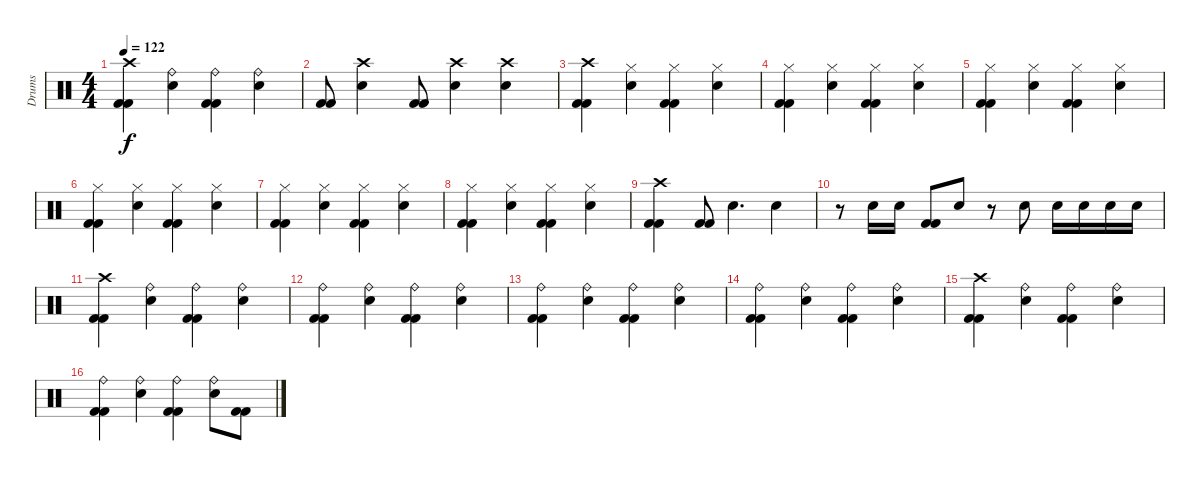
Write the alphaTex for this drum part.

\track ("Drums" "Drums") {instrument percussion}
\staff {score}
\articulation defaults
\ts (4 4)
\tempo 122
\clef neutral
\ks c
("Crash high (hit)" "Kick (hit) 2" "Kick (hit) 2").4{dy f} ("Ride (bell)" "Snare (hit) 2").4 ("Ride (bell)" "Kick (hit) 2" "Kick (hit) 2").4 ("Ride (bell)" "Snare (hit) 2").4 |
("Kick (hit) 2" "Kick (hit) 2").8 ("Crash high (hit)" "Snare (hit) 2").4 ("Kick (hit) 2" "Kick (hit) 2").8 ("Crash high (hit)" "Snare (hit) 2").4 ("Crash high (hit)" "Snare (hit) 2").4 |
("Crash high (hit)" "Kick (hit) 2" "Kick (hit) 2").4 ("Hi-Hat (closed)" "Snare (hit) 2").4 ("Hi-Hat (closed)" "Kick (hit) 2" "Kick (hit) 2").4 ("Hi-Hat (closed)" "Snare (hit) 2").4 |
("Hi-Hat (closed)" "Kick (hit) 2" "Kick (hit) 2").4 ("Hi-Hat (closed)" "Snare (hit) 2").4 ("Hi-Hat (closed)" "Kick (hit) 2" "Kick (hit) 2").4 ("Hi-Hat (closed)" "Snare (hit) 2").4 |
("Hi-Hat (closed)" "Kick (hit) 2" "Kick (hit) 2").4 ("Hi-Hat (closed)" "Snare (hit) 2").4 ("Hi-Hat (closed)" "Kick (hit) 2" "Kick (hit) 2").4 ("Hi-Hat (closed)" "Snare (hit) 2").4 |
("Hi-Hat (closed)" "Kick (hit) 2" "Kick (hit) 2").4 ("Hi-Hat (closed)" "Snare (hit) 2").4 ("Hi-Hat (closed)" "Kick (hit) 2" "Kick (hit) 2").4 ("Hi-Hat (closed)" "Snare (hit) 2").4 |
("Hi-Hat (closed)" "Kick (hit) 2" "Kick (hit) 2").4 ("Hi-Hat (closed)" "Snare (hit) 2").4 ("Hi-Hat (closed)" "Kick (hit) 2" "Kick (hit) 2").4 ("Hi-Hat (closed)" "Snare (hit) 2").4 |
("Hi-Hat (closed)" "Kick (hit) 2" "Kick (hit) 2").4 ("Hi-Hat (closed)" "Snare (hit) 2").4 ("Hi-Hat (closed)" "Kick (hit) 2" "Kick (hit) 2").4 ("Hi-Hat (closed)" "Snare (hit) 2").4 |
("Crash high (hit)" "Kick (hit) 2" "Kick (hit) 2").4 ("Kick (hit) 2" "Kick (hit) 2").8 "Snare (hit) 2".4{d} "Snare (hit) 2".4 |
r.8 "Snare (hit) 2".16 "Snare (hit) 2".16 ("Kick (hit) 2" "Kick (hit) 2").8 "Snare (hit) 2".8 r.8 "Snare (hit) 2".8 "Snare (hit) 2".16 "Snare (hit) 2".16 "Snare (hit) 2".16 "Snare (hit) 2".16 |
("Crash high (hit)" "Kick (hit) 2" "Kick (hit) 2").4 ("Ride (bell)" "Snare (hit) 2").4 ("Ride (bell)" "Kick (hit) 2" "Kick (hit) 2").4 ("Ride (bell)" "Snare (hit) 2").4 |
("Ride (bell)" "Kick (hit) 2" "Kick (hit) 2").4 ("Ride (bell)" "Snare (hit) 2").4 ("Ride (bell)" "Kick (hit) 2" "Kick (hit) 2").4 ("Ride (bell)" "Snare (hit) 2").4 |
("Ride (bell)" "Kick (hit) 2" "Kick (hit) 2").4 ("Ride (bell)" "Snare (hit) 2").4 ("Ride (bell)" "Kick (hit) 2" "Kick (hit) 2").4 ("Ride (bell)" "Snare (hit) 2").4 |
("Ride (bell)" "Kick (hit) 2" "Kick (hit) 2").4 ("Ride (bell)" "Snare (hit) 2").4 ("Ride (bell)" "Kick (hit) 2" "Kick (hit) 2").4 ("Ride (bell)" "Snare (hit) 2").4 |
("Crash high (hit)" "Kick (hit) 2" "Kick (hit) 2").4 ("Ride (bell)" "Snare (hit) 2").4 ("Ride (bell)" "Kick (hit) 2" "Kick (hit) 2").4 ("Ride (bell)" "Snare (hit) 2").4 |
("Ride (bell)" "Kick (hit) 2" "Kick (hit) 2").4 ("Ride (bell)" "Snare (hit) 2").4 ("Ride (bell)" "Kick (hit) 2" "Kick (hit) 2").4 ("Ride (bell)" "Snare (hit) 2").8 ("Kick (hit) 2" "Kick (hit) 2").8
